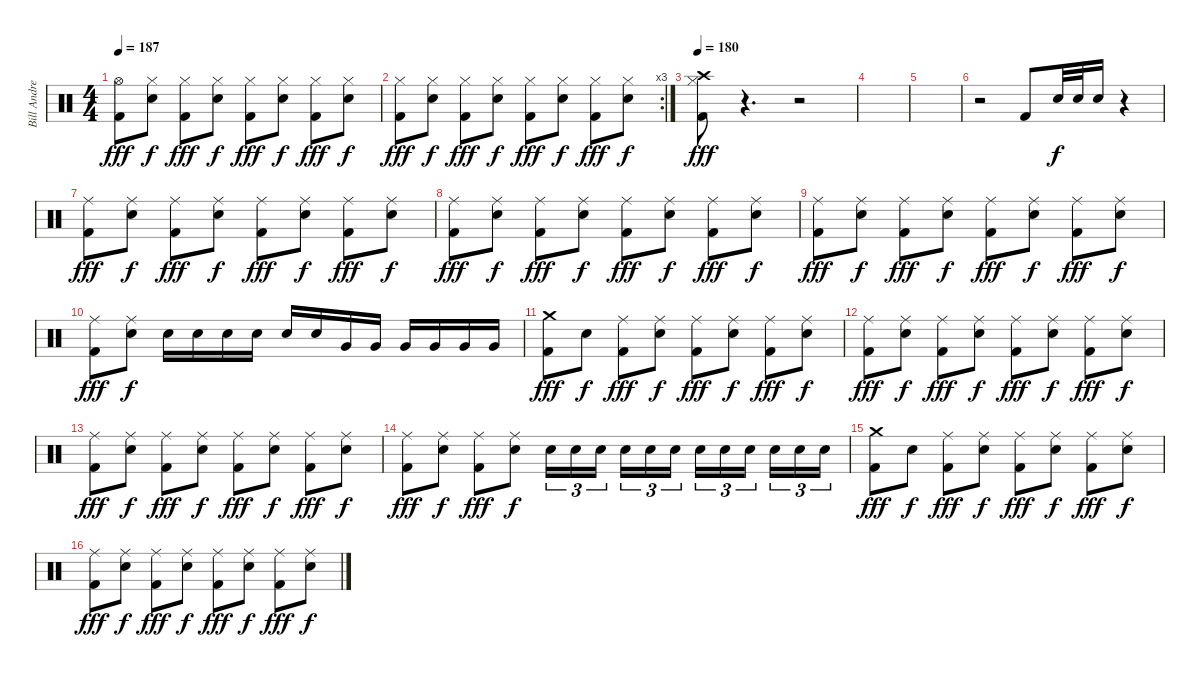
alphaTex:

\track ("Bill Andrews" "Bill Andre") {instrument percussion}
\staff {score}
\articulation defaults
\ts (4 4)
\tempo 187
\clef neutral
\ks c
("Hi-Hat (open)" "Kick (hit) 2").8{dy fff} ("Hi-Hat (closed)" "Electric Snare (hit)").8{dy f} ("Hi-Hat (closed)" "Kick (hit) 2").8{dy fff} ("Hi-Hat (closed)" "Electric Snare (hit)").8{dy f} ("Hi-Hat (closed)" "Kick (hit) 2").8{dy fff} ("Hi-Hat (closed)" "Electric Snare (hit)").8{dy f} ("Hi-Hat (closed)" "Kick (hit) 2").8{dy fff} ("Hi-Hat (closed)" "Electric Snare (hit)").8{dy f} |
\rc 3
("Hi-Hat (closed)" "Kick (hit) 2").8{dy fff} ("Hi-Hat (closed)" "Electric Snare (hit)").8{dy f} ("Hi-Hat (closed)" "Kick (hit) 2").8{dy fff} ("Hi-Hat (closed)" "Electric Snare (hit)").8{dy f} ("Hi-Hat (closed)" "Kick (hit) 2").8{dy fff} ("Hi-Hat (closed)" "Electric Snare (hit)").8{dy f} ("Hi-Hat (closed)" "Kick (hit) 2").8{dy fff} ("Hi-Hat (closed)" "Electric Snare (hit)").8{dy f} |
\tempo 180
("Crash high (hit)" "Hi-Hat (closed)" "Kick (hit) 2").8{dy fff} r.4{d} r.2 |
|
|
r.2 "Kick (hit) 2".8 "Electric Snare (hit)".32{dy f} "Electric Snare (hit)".32 "Electric Snare (hit)".16 r.4 |
("Ride (middle)" "Kick (hit) 2").8{dy fff} ("Ride (middle)" "Electric Snare (hit)").8{dy f} ("Ride (middle)" "Kick (hit) 2").8{dy fff} ("Ride (middle)" "Electric Snare (hit)").8{dy f} ("Ride (middle)" "Kick (hit) 2").8{dy fff} ("Ride (middle)" "Electric Snare (hit)").8{dy f} ("Ride (middle)" "Kick (hit) 2").8{dy fff} ("Ride (middle)" "Electric Snare (hit)").8{dy f} |
("Ride (middle)" "Kick (hit) 2").8{dy fff} ("Ride (middle)" "Electric Snare (hit)").8{dy f} ("Ride (middle)" "Kick (hit) 2").8{dy fff} ("Ride (middle)" "Electric Snare (hit)").8{dy f} ("Ride (middle)" "Kick (hit) 2").8{dy fff} ("Ride (middle)" "Electric Snare (hit)").8{dy f} ("Ride (middle)" "Kick (hit) 2").8{dy fff} ("Ride (middle)" "Electric Snare (hit)").8{dy f} |
("Ride (middle)" "Kick (hit) 2").8{dy fff} ("Ride (middle)" "Electric Snare (hit)").8{dy f} ("Ride (middle)" "Kick (hit) 2").8{dy fff} ("Ride (middle)" "Electric Snare (hit)").8{dy f} ("Ride (middle)" "Kick (hit) 2").8{dy fff} ("Ride (middle)" "Electric Snare (hit)").8{dy f} ("Ride (middle)" "Kick (hit) 2").8{dy fff} ("Ride (middle)" "Electric Snare (hit)").8{dy f} |
("Ride (middle)" "Kick (hit) 2").8{dy fff} ("Ride (middle)" "Electric Snare (hit)").8{dy f} "Electric Snare (hit)".16 "Electric Snare (hit)".16 "Electric Snare (hit)".16 "Electric Snare (hit)".16 "Electric Snare (hit)".16 "Electric Snare (hit)".16 "Very Low Tom (hit)".16 "Very Low Tom (hit)".16 "Very Low Tom (hit)".16 "Very Low Tom (hit)".16 "Very Low Tom (hit)".16 "Very Low Tom (hit)".16 |
("Crash medium (hit)" "Kick (hit) 2").8{dy fff} "Electric Snare (hit)".8{dy f} ("Ride (middle)" "Kick (hit) 2").8{dy fff} ("Ride (middle)" "Electric Snare (hit)").8{dy f} ("Ride (middle)" "Kick (hit) 2").8{dy fff} ("Ride (middle)" "Electric Snare (hit)").8{dy f} ("Ride (middle)" "Kick (hit) 2").8{dy fff} ("Ride (middle)" "Electric Snare (hit)").8{dy f} |
("Ride (middle)" "Kick (hit) 2").8{dy fff} ("Ride (middle)" "Electric Snare (hit)").8{dy f} ("Ride (middle)" "Kick (hit) 2").8{dy fff} ("Ride (middle)" "Electric Snare (hit)").8{dy f} ("Ride (middle)" "Kick (hit) 2").8{dy fff} ("Ride (middle)" "Electric Snare (hit)").8{dy f} ("Ride (middle)" "Kick (hit) 2").8{dy fff} ("Ride (middle)" "Electric Snare (hit)").8{dy f} |
("Ride (middle)" "Kick (hit) 2").8{dy fff} ("Ride (middle)" "Electric Snare (hit)").8{dy f} ("Ride (middle)" "Kick (hit) 2").8{dy fff} ("Ride (middle)" "Electric Snare (hit)").8{dy f} ("Ride (middle)" "Kick (hit) 2").8{dy fff} ("Ride (middle)" "Electric Snare (hit)").8{dy f} ("Ride (middle)" "Kick (hit) 2").8{dy fff} ("Ride (middle)" "Electric Snare (hit)").8{dy f} |
("Ride (middle)" "Kick (hit) 2").8{dy fff} ("Ride (middle)" "Electric Snare (hit)").8{dy f} ("Ride (middle)" "Kick (hit) 2").8{dy fff} ("Ride (middle)" "Electric Snare (hit)").8{dy f} "Electric Snare (hit)".16{tu (3 2)} "Electric Snare (hit)".16{tu (3 2)} "Electric Snare (hit)".16{tu (3 2) beam splitsecondary} "Electric Snare (hit)".16{tu (3 2)} "Electric Snare (hit)".16{tu (3 2)} "Electric Snare (hit)".16{tu (3 2)} "Electric Snare (hit)".16{tu (3 2)} "Electric Snare (hit)".16{tu (3 2)} "Electric Snare (hit)".16{tu (3 2) beam splitsecondary} "Electric Snare (hit)".16{tu (3 2)} "Electric Snare (hit)".16{tu (3 2)} "Electric Snare (hit)".16{tu (3 2)} |
("Crash medium (hit)" "Kick (hit) 2").8{dy fff} "Electric Snare (hit)".8{dy f} ("Ride (middle)" "Kick (hit) 2").8{dy fff} ("Ride (middle)" "Electric Snare (hit)").8{dy f} ("Ride (middle)" "Kick (hit) 2").8{dy fff} ("Ride (middle)" "Electric Snare (hit)").8{dy f} ("Ride (middle)" "Kick (hit) 2").8{dy fff} ("Ride (middle)" "Electric Snare (hit)").8{dy f} |
("Ride (middle)" "Kick (hit) 2").8{dy fff} ("Ride (middle)" "Electric Snare (hit)").8{dy f} ("Ride (middle)" "Kick (hit) 2").8{dy fff} ("Ride (middle)" "Electric Snare (hit)").8{dy f} ("Ride (middle)" "Kick (hit) 2").8{dy fff} ("Ride (middle)" "Electric Snare (hit)").8{dy f} ("Ride (middle)" "Kick (hit) 2").8{dy fff} ("Ride (middle)" "Electric Snare (hit)").8{dy f}
